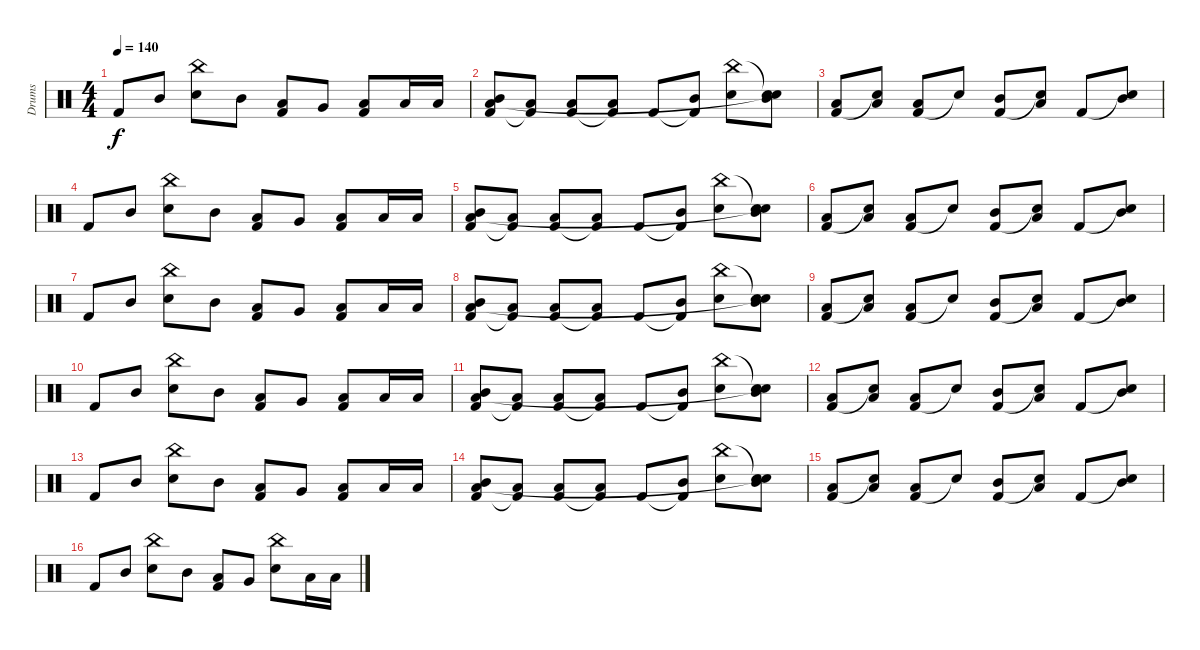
\track ("Drums" "Drums") {instrument percussion}
\staff {score}
\articulation defaults
\ts (4 4)
\tempo 140
\clef neutral
\ks c "Kick (hit) 2".8{dy f} "Mid Tom (hit)".8
("Electric Snare (hit)" "China (hit)").8 "Mid Tom (hit)".8 ("Kick (hit) 2" "Low Tom (hit)").8 "Very Low Tom (hit)".8 ("Kick (hit) 2" "Low Floor Tom (hit)").8 "Low Floor Tom (hit)".16 "Low Floor Tom (hit)".16 |
("Kick (hit) 2" "Mid Tom (hit)" "Low Tom (hit)").8 ("Kick (hit) 2"{t} "Low Tom (hit)").8 ("Kick (hit) 2" "Low Tom (hit)").8 ("Kick (hit) 2"{t} "Low Tom (hit)").8 "Kick (hit) 2".8 ("Kick (hit) 2"{t} "Mid Tom (hit)").8 ("Electric Snare (hit)" "China (hit)").8 ("Mid Tom (hit)" "Snare (hit)"{t} "Snare (hit)"{t}).8 |
("Kick (hit) 2" "Low Tom (hit)").8 ("Snare (hit)"{t} "Low Tom (hit)").8 ("Kick (hit) 2" "Low Tom (hit)").8 "Snare (hit)"{t}.8 ("Kick (hit) 2" "Mid Tom (hit)").8 ("Snare (hit)"{t} "Low Tom (hit)").8 "Kick (hit) 2".8 ("Snare (hit)"{t} "Mid Tom (hit)").8 |
"Kick (hit) 2".8 "Mid Tom (hit)".8 ("Electric Snare (hit)" "China (hit)").8 "Mid Tom (hit)".8 ("Kick (hit) 2" "Low Tom (hit)").8 "Very Low Tom (hit)".8 ("Kick (hit) 2" "Low Floor Tom (hit)").8 "Low Floor Tom (hit)".16 "Low Floor Tom (hit)".16 |
("Kick (hit) 2" "Mid Tom (hit)" "Low Tom (hit)").8 ("Kick (hit) 2"{t} "Low Tom (hit)").8 ("Kick (hit) 2" "Low Tom (hit)").8 ("Kick (hit) 2"{t} "Low Tom (hit)").8 "Kick (hit) 2".8 ("Kick (hit) 2"{t} "Mid Tom (hit)").8 ("Electric Snare (hit)" "China (hit)").8 ("Mid Tom (hit)" "Snare (hit)"{t} "Snare (hit)"{t}).8 |
("Kick (hit) 2" "Low Tom (hit)").8 ("Snare (hit)"{t} "Low Tom (hit)").8 ("Kick (hit) 2" "Low Tom (hit)").8 "Snare (hit)"{t}.8 ("Kick (hit) 2" "Mid Tom (hit)").8 ("Snare (hit)"{t} "Low Tom (hit)").8 "Kick (hit) 2".8 ("Snare (hit)"{t} "Mid Tom (hit)").8 |
"Kick (hit) 2".8 "Mid Tom (hit)".8 ("Electric Snare (hit)" "China (hit)").8 "Mid Tom (hit)".8 ("Kick (hit) 2" "Low Tom (hit)").8 "Very Low Tom (hit)".8 ("Kick (hit) 2" "Low Floor Tom (hit)").8 "Low Floor Tom (hit)".16 "Low Floor Tom (hit)".16 |
("Kick (hit) 2" "Mid Tom (hit)" "Low Tom (hit)").8 ("Kick (hit) 2"{t} "Low Tom (hit)").8 ("Kick (hit) 2" "Low Tom (hit)").8 ("Kick (hit) 2"{t} "Low Tom (hit)").8 "Kick (hit) 2".8 ("Kick (hit) 2"{t} "Mid Tom (hit)").8 ("Electric Snare (hit)" "China (hit)").8 ("Mid Tom (hit)" "Snare (hit)"{t} "Snare (hit)"{t}).8 |
("Kick (hit) 2" "Low Tom (hit)").8 ("Snare (hit)"{t} "Low Tom (hit)").8 ("Kick (hit) 2" "Low Tom (hit)").8 "Snare (hit)"{t}.8 ("Kick (hit) 2" "Mid Tom (hit)").8 ("Snare (hit)"{t} "Low Tom (hit)").8 "Kick (hit) 2".8 ("Snare (hit)"{t} "Mid Tom (hit)").8 |
"Kick (hit) 2".8 "Mid Tom (hit)".8 ("Electric Snare (hit)" "China (hit)").8 "Mid Tom (hit)".8 ("Kick (hit) 2" "Low Tom (hit)").8 "Very Low Tom (hit)".8 ("Kick (hit) 2" "Low Floor Tom (hit)").8 "Low Floor Tom (hit)".16 "Low Floor Tom (hit)".16 |
("Kick (hit) 2" "Mid Tom (hit)" "Low Tom (hit)").8 ("Kick (hit) 2"{t} "Low Tom (hit)").8 ("Kick (hit) 2" "Low Tom (hit)").8 ("Kick (hit) 2"{t} "Low Tom (hit)").8 "Kick (hit) 2".8 ("Kick (hit) 2"{t} "Mid Tom (hit)").8 ("Electric Snare (hit)" "China (hit)").8 ("Mid Tom (hit)" "Snare (hit)"{t} "Snare (hit)"{t}).8 |
("Kick (hit) 2" "Low Tom (hit)").8 ("Snare (hit)"{t} "Low Tom (hit)").8 ("Kick (hit) 2" "Low Tom (hit)").8 "Snare (hit)"{t}.8 ("Kick (hit) 2" "Mid Tom (hit)").8 ("Snare (hit)"{t} "Low Tom (hit)").8 "Kick (hit) 2".8 ("Snare (hit)"{t} "Mid Tom (hit)").8 |
"Kick (hit) 2".8 "Mid Tom (hit)".8 ("Electric Snare (hit)" "China (hit)").8 "Mid Tom (hit)".8 ("Kick (hit) 2" "Low Tom (hit)").8 "Very Low Tom (hit)".8 ("Kick (hit) 2" "Low Floor Tom (hit)").8 "Low Floor Tom (hit)".16 "Low Floor Tom (hit)".16 |
("Kick (hit) 2" "Mid Tom (hit)" "Low Tom (hit)").8 ("Kick (hit) 2"{t} "Low Tom (hit)").8 ("Kick (hit) 2" "Low Tom (hit)").8 ("Kick (hit) 2"{t} "Low Tom (hit)").8 "Kick (hit) 2".8 ("Kick (hit) 2"{t} "Mid Tom (hit)").8 ("Electric Snare (hit)" "China (hit)").8 ("Mid Tom (hit)" "Snare (hit)"{t} "Snare (hit)"{t}).8 |
("Kick (hit) 2" "Low Tom (hit)").8 ("Snare (hit)"{t} "Low Tom (hit)").8 ("Kick (hit) 2" "Low Tom (hit)").8 "Snare (hit)"{t}.8 ("Kick (hit) 2" "Mid Tom (hit)").8 ("Snare (hit)"{t} "Low Tom (hit)").8 "Kick (hit) 2".8 ("Snare (hit)"{t} "Mid Tom (hit)").8 |
"Kick (hit) 2".8 "Mid Tom (hit)".8 ("Electric Snare (hit)" "China (hit)").8 "Mid Tom (hit)".8 ("Kick (hit) 2" "Low Tom (hit)").8 "Very Low Tom (hit)".8 ("Electric Snare (hit)" "China (hit)").8 "Low Floor Tom (hit)".16 "Low Floor Tom (hit)".16
